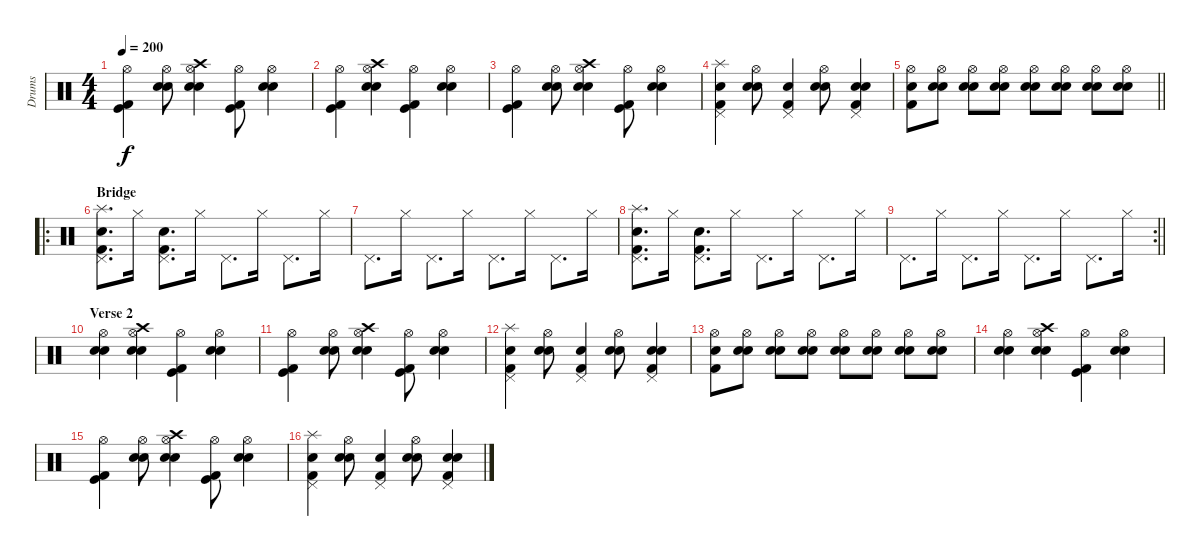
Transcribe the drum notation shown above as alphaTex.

\track ("Drums" "Drums") {instrument percussion}
\staff {score}
\articulation defaults
\ts (4 4)
\tempo 200
\clef neutral
\ks c
("Hi-Hat (open)" "Kick (hit)" "Kick (hit) 2").4{dy f} ("Hi-Hat (open)" "Snare (hit) 2" "Electric Snare (hit)").8 ("Hi-Hat (open)" "Crash high (hit)" "Snare (hit) 2" "Electric Snare (hit)").4 ("Hi-Hat (open)" "Kick (hit)" "Kick (hit) 2").8 ("Hi-Hat (open)" "Snare (hit) 2" "Electric Snare (hit)").4 |
("Hi-Hat (open)" "Kick (hit)" "Kick (hit) 2").4 ("Hi-Hat (open)" "Crash high (hit)" "Snare (hit) 2" "Electric Snare (hit)").4 ("Hi-Hat (open)" "Kick (hit)" "Kick (hit) 2").4 ("Hi-Hat (open)" "Snare (hit) 2" "Electric Snare (hit)").4 |
("Hi-Hat (open)" "Kick (hit)" "Kick (hit) 2").4 ("Hi-Hat (open)" "Snare (hit) 2" "Electric Snare (hit)").8 ("Hi-Hat (open)" "Crash high (hit)" "Snare (hit) 2" "Electric Snare (hit)").4 ("Hi-Hat (open)" "Kick (hit)" "Kick (hit) 2").8 ("Hi-Hat (open)" "Snare (hit) 2" "Electric Snare (hit)").4 |
("Pedal Hi-Hat (hit)" "Splash (hit)" "Snare (hit) 2" "Kick (hit) 2").4 ("Hi-Hat (open)" "Snare (hit) 2" "Electric Snare (hit)").8 ("Pedal Hi-Hat (hit)" "Snare (hit) 2" "Kick (hit) 2").4 ("Hi-Hat (open)" "Snare (hit) 2" "Electric Snare (hit)").8 ("Pedal Hi-Hat (hit)" "Snare (hit) 2" "Electric Snare (hit)" "Kick (hit) 2").4 |
\barLineRight lightlight
("Hi-Hat (open)" "Snare (hit) 2" "Kick (hit) 2").8 ("Hi-Hat (open)" "Snare (hit) 2" "Electric Snare (hit)").8 ("Hi-Hat (open)" "Snare (hit) 2" "Electric Snare (hit)").8 ("Hi-Hat (open)" "Snare (hit) 2" "Electric Snare (hit)").8 ("Hi-Hat (open)" "Snare (hit) 2" "Electric Snare (hit)").8 ("Hi-Hat (open)" "Snare (hit) 2" "Electric Snare (hit)").8 ("Hi-Hat (open)" "Snare (hit) 2" "Electric Snare (hit)").8 ("Hi-Hat (open)" "Snare (hit) 2" "Electric Snare (hit)").8 |
\ro
\section ("" "Bridge")
("Pedal Hi-Hat (hit)" "Splash (hit)" "Snare (hit) 2" "Kick (hit) 2").8{d} "Hi-Hat (closed)".16 ("Pedal Hi-Hat (hit)" "Snare (hit) 2" "Kick (hit) 2").8{d} "Hi-Hat (closed)".16 "Pedal Hi-Hat (hit)".8{d} "Hi-Hat (closed)".16 "Pedal Hi-Hat (hit)".8{d} "Hi-Hat (closed)".16 |
"Pedal Hi-Hat (hit)".8{d} "Hi-Hat (closed)".16 "Pedal Hi-Hat (hit)".8{d} "Hi-Hat (closed)".16 "Pedal Hi-Hat (hit)".8{d} "Hi-Hat (closed)".16 "Pedal Hi-Hat (hit)".8{d} "Hi-Hat (closed)".16 |
("Pedal Hi-Hat (hit)" "Splash (hit)" "Snare (hit) 2" "Kick (hit) 2").8{d} "Hi-Hat (closed)".16 ("Pedal Hi-Hat (hit)" "Snare (hit) 2" "Kick (hit) 2").8{d} "Hi-Hat (closed)".16 "Pedal Hi-Hat (hit)".8{d} "Hi-Hat (closed)".16 "Pedal Hi-Hat (hit)".8{d} "Hi-Hat (closed)".16 |
\rc 2
\barLineRight lightlight "Pedal Hi-Hat (hit)".8{d} "Hi-Hat (closed)".16 "Pedal Hi-Hat (hit)".8{d} "Hi-Hat (closed)".16 "Pedal Hi-Hat (hit)".8{d} "Hi-Hat (closed)".16 "Pedal Hi-Hat (hit)".8{d} "Hi-Hat (closed)".16
|
\section ("" "Verse 2")
("Hi-Hat (open)" "Snare (hit) 2" "Electric Snare (hit)").4 ("Hi-Hat (open)" "Crash high (hit)" "Snare (hit) 2" "Electric Snare (hit)").4 ("Hi-Hat (open)" "Kick (hit)" "Kick (hit) 2").4 ("Hi-Hat (open)" "Snare (hit) 2" "Electric Snare (hit)").4 |
("Hi-Hat (open)" "Kick (hit)" "Kick (hit) 2").4 ("Hi-Hat (open)" "Snare (hit) 2" "Electric Snare (hit)").8 ("Hi-Hat (open)" "Crash high (hit)" "Snare (hit) 2" "Electric Snare (hit)").4 ("Hi-Hat (open)" "Kick (hit)" "Kick (hit) 2").8 ("Hi-Hat (open)" "Snare (hit) 2" "Electric Snare (hit)").4 |
("Pedal Hi-Hat (hit)" "Splash (hit)" "Snare (hit) 2" "Kick (hit) 2").4 ("Hi-Hat (open)" "Snare (hit) 2" "Electric Snare (hit)").8 ("Pedal Hi-Hat (hit)" "Snare (hit) 2" "Kick (hit) 2").4 ("Hi-Hat (open)" "Snare (hit) 2" "Electric Snare (hit)").8 ("Pedal Hi-Hat (hit)" "Snare (hit) 2" "Electric Snare (hit)" "Kick (hit) 2").4 |
("Hi-Hat (open)" "Snare (hit) 2" "Kick (hit) 2").8 ("Hi-Hat (open)" "Snare (hit) 2" "Electric Snare (hit)").8 ("Hi-Hat (open)" "Snare (hit) 2" "Electric Snare (hit)").8 ("Hi-Hat (open)" "Snare (hit) 2" "Electric Snare (hit)").8 ("Hi-Hat (open)" "Snare (hit) 2" "Electric Snare (hit)").8 ("Hi-Hat (open)" "Snare (hit) 2" "Electric Snare (hit)").8 ("Hi-Hat (open)" "Snare (hit) 2" "Electric Snare (hit)").8 ("Hi-Hat (open)" "Snare (hit) 2" "Electric Snare (hit)").8 |
("Hi-Hat (open)" "Snare (hit) 2" "Electric Snare (hit)").4 ("Hi-Hat (open)" "Crash high (hit)" "Snare (hit) 2" "Electric Snare (hit)").4 ("Hi-Hat (open)" "Kick (hit)" "Kick (hit) 2").4 ("Hi-Hat (open)" "Snare (hit) 2" "Electric Snare (hit)").4 |
("Hi-Hat (open)" "Kick (hit)" "Kick (hit) 2").4 ("Hi-Hat (open)" "Snare (hit) 2" "Electric Snare (hit)").8 ("Hi-Hat (open)" "Crash high (hit)" "Snare (hit) 2" "Electric Snare (hit)").4 ("Hi-Hat (open)" "Kick (hit)" "Kick (hit) 2").8 ("Hi-Hat (open)" "Snare (hit) 2" "Electric Snare (hit)").4 |
("Pedal Hi-Hat (hit)" "Splash (hit)" "Snare (hit) 2" "Kick (hit) 2").4 ("Hi-Hat (open)" "Snare (hit) 2" "Electric Snare (hit)").8 ("Pedal Hi-Hat (hit)" "Snare (hit) 2" "Kick (hit) 2").4 ("Hi-Hat (open)" "Snare (hit) 2" "Electric Snare (hit)").8 ("Pedal Hi-Hat (hit)" "Snare (hit) 2" "Electric Snare (hit)" "Kick (hit) 2").4
